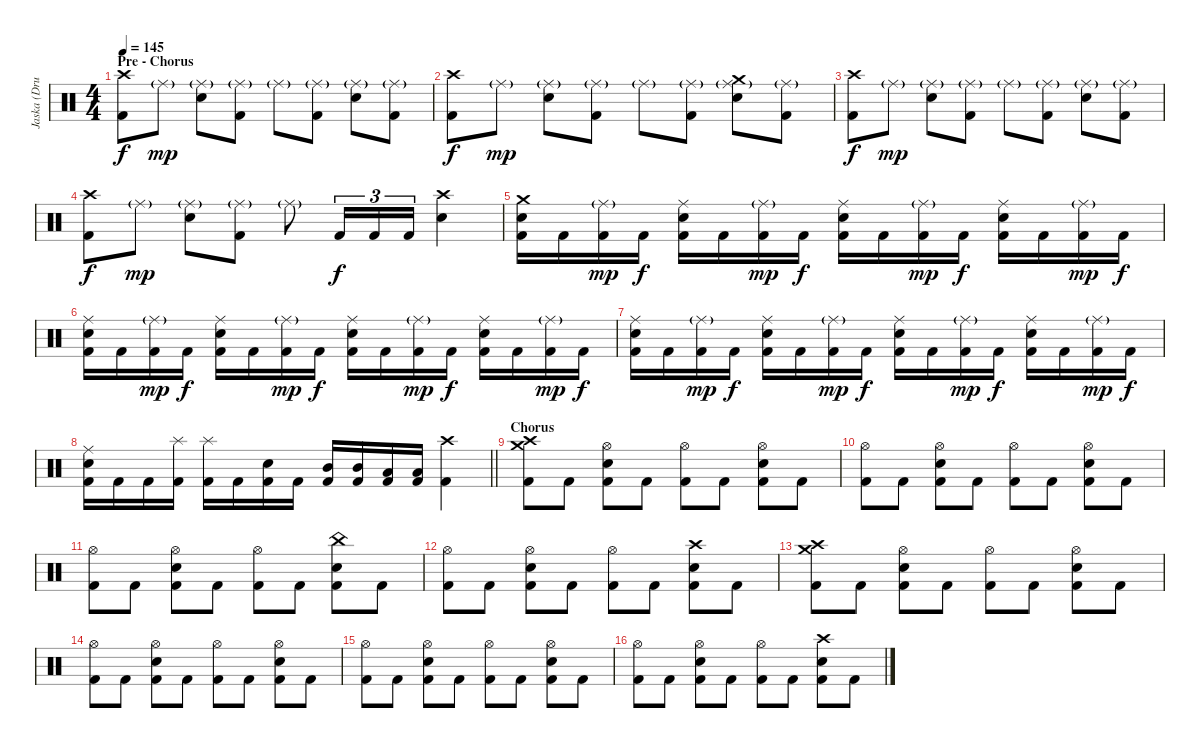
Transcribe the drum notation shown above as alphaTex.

\track ("Jaska (Drums)" "Jaska (Dru") {instrument percussion}
\staff {score}
\articulation defaults
\ts (4 4)
\section ("" "Pre - Chorus")
\tempo 145
\clef neutral
\ks c
("Crash high (hit)" "Kick (hit) 2").8{dy f} "Ride (middle)"{g}.8{dy mp} ("Ride (middle)"{g} "Electric Snare (hit)").8 ("Ride (middle)"{g} "Kick (hit) 2").8 "Ride (middle)"{g}.8 ("Ride (middle)"{g} "Kick (hit) 2").8 ("Ride (middle)"{g} "Electric Snare (hit)").8 ("Ride (middle)"{g} "Kick (hit) 2").8 |
("Crash high (hit)" "Kick (hit) 2").8{dy f} "Ride (middle)"{g}.8{dy mp} ("Ride (middle)"{g} "Electric Snare (hit)").8 ("Ride (middle)"{g} "Kick (hit) 2").8 "Ride (middle)"{g}.8 ("Ride (middle)"{g} "Kick (hit) 2").8 ("Crash medium (hit)" "Ride (middle)"{g} "Electric Snare (hit)").8 ("Ride (middle)"{g} "Kick (hit) 2").8 |
("Crash high (hit)" "Kick (hit) 2").8{dy f} "Ride (middle)"{g}.8{dy mp} ("Ride (middle)"{g} "Electric Snare (hit)").8 ("Ride (middle)"{g} "Kick (hit) 2").8 "Ride (middle)"{g}.8 ("Ride (middle)"{g} "Kick (hit) 2").8 ("Ride (middle)"{g} "Electric Snare (hit)").8 ("Ride (middle)"{g} "Kick (hit) 2").8 |
("Crash high (hit)" "Kick (hit) 2").8{dy f} "Ride (middle)"{g}.8{dy mp} ("Ride (middle)"{g} "Electric Snare (hit)").8 ("Ride (middle)"{g} "Kick (hit) 2").8 "Ride (middle)"{g}.8 "Kick (hit) 2".16{tu (3 2) dy f} "Kick (hit) 2".16{tu (3 2)} "Kick (hit) 2".16{tu (3 2)} ("Crash high (hit)" "Electric Snare (hit)").4 |
("Crash medium (hit)" "Electric Snare (hit)" "Kick (hit) 2").16 "Kick (hit) 2".16 ("Ride (middle)"{g} "Kick (hit) 2").16{dy mp} "Kick (hit) 2".16{dy f} ("Ride (middle)" "Electric Snare (hit)" "Kick (hit) 2").16 "Kick (hit) 2".16 ("Ride (middle)"{g} "Kick (hit) 2").16{dy mp} "Kick (hit) 2".16{dy f} ("Ride (middle)" "Electric Snare (hit)" "Kick (hit) 2").16 "Kick (hit) 2".16 ("Ride (middle)"{g} "Kick (hit) 2").16{dy mp} "Kick (hit) 2".16{dy f} ("Ride (middle)" "Electric Snare (hit)" "Kick (hit) 2").16 "Kick (hit) 2".16 ("Ride (middle)"{g} "Kick (hit) 2").16{dy mp} "Kick (hit) 2".16{dy f} |
("Ride (middle)" "Electric Snare (hit)" "Kick (hit) 2").16 "Kick (hit) 2".16 ("Ride (middle)"{g} "Kick (hit) 2").16{dy mp} "Kick (hit) 2".16{dy f} ("Ride (middle)" "Electric Snare (hit)" "Kick (hit) 2").16 "Kick (hit) 2".16 ("Ride (middle)"{g} "Kick (hit) 2").16{dy mp} "Kick (hit) 2".16{dy f} ("Ride (middle)" "Electric Snare (hit)" "Kick (hit) 2").16 "Kick (hit) 2".16 ("Ride (middle)"{g} "Kick (hit) 2").16{dy mp} "Kick (hit) 2".16{dy f} ("Ride (middle)" "Electric Snare (hit)" "Kick (hit) 2").16 "Kick (hit) 2".16 ("Ride (middle)"{g} "Kick (hit) 2").16{dy mp} "Kick (hit) 2".16{dy f} |
("Ride (middle)" "Electric Snare (hit)" "Kick (hit) 2").16 "Kick (hit) 2".16 ("Ride (middle)"{g} "Kick (hit) 2").16{dy mp} "Kick (hit) 2".16{dy f} ("Ride (middle)" "Electric Snare (hit)" "Kick (hit) 2").16 "Kick (hit) 2".16 ("Ride (middle)"{g} "Kick (hit) 2").16{dy mp} "Kick (hit) 2".16{dy f} ("Ride (middle)" "Electric Snare (hit)" "Kick (hit) 2").16 "Kick (hit) 2".16 ("Ride (middle)"{g} "Kick (hit) 2").16{dy mp} "Kick (hit) 2".16{dy f} ("Ride (middle)" "Electric Snare (hit)" "Kick (hit) 2").16 "Kick (hit) 2".16 ("Ride (middle)"{g} "Kick (hit) 2").16{dy mp} "Kick (hit) 2".16{dy f} |
\barLineRight lightlight
("Ride (middle)" "Electric Snare (hit)" "Kick (hit) 2").16 "Kick (hit) 2".16 "Kick (hit) 2".16 ("Splash (hit)" "Kick (hit) 2").16 ("Splash (hit)" "Kick (hit) 2").16 "Kick (hit) 2".16 ("Electric Snare (hit)" "Kick (hit) 2").16 "Kick (hit) 2".16 ("Mid Tom (hit)" "Kick (hit) 2").16 ("Mid Tom (hit)" "Kick (hit) 2").16 ("Low Tom (hit)" "Kick (hit) 2").16 ("Low Tom (hit)" "Kick (hit) 2").16 ("Crash high (hit)" "Kick (hit) 2").4 |
\section ("" "Chorus")
("Crash medium (hit)" "Crash high (hit)" "Kick (hit) 2").8{volume 16 balance 8} "Kick (hit) 2".8 ("Hi-Hat (open)" "Electric Snare (hit)" "Kick (hit) 2").8 "Kick (hit) 2".8 ("Hi-Hat (open)" "Kick (hit) 2").8 "Kick (hit) 2".8 ("Hi-Hat (open)" "Electric Snare (hit)" "Kick (hit) 2").8 "Kick (hit) 2".8 |
("Hi-Hat (open)" "Kick (hit) 2").8 "Kick (hit) 2".8 ("Hi-Hat (open)" "Electric Snare (hit)" "Kick (hit) 2").8 "Kick (hit) 2".8 ("Hi-Hat (open)" "Kick (hit) 2").8 "Kick (hit) 2".8 ("Hi-Hat (open)" "Electric Snare (hit)" "Kick (hit) 2").8 "Kick (hit) 2".8 |
("Hi-Hat (open)" "Kick (hit) 2").8 "Kick (hit) 2".8 ("Hi-Hat (open)" "Electric Snare (hit)" "Kick (hit) 2").8 "Kick (hit) 2".8 ("Hi-Hat (open)" "Kick (hit) 2").8 "Kick (hit) 2".8 ("China (hit)" "Electric Snare (hit)" "Kick (hit) 2").8 "Kick (hit) 2".8 |
("Hi-Hat (open)" "Kick (hit) 2").8 "Kick (hit) 2".8 ("Hi-Hat (open)" "Electric Snare (hit)" "Kick (hit) 2").8 "Kick (hit) 2".8 ("Hi-Hat (open)" "Kick (hit) 2").8 "Kick (hit) 2".8 ("Crash high (hit)" "Electric Snare (hit)" "Kick (hit) 2").8 "Kick (hit) 2".8 |
("Crash medium (hit)" "Crash high (hit)" "Kick (hit) 2").8 "Kick (hit) 2".8 ("Hi-Hat (open)" "Electric Snare (hit)" "Kick (hit) 2").8 "Kick (hit) 2".8 ("Hi-Hat (open)" "Kick (hit) 2").8 "Kick (hit) 2".8 ("Hi-Hat (open)" "Electric Snare (hit)" "Kick (hit) 2").8 "Kick (hit) 2".8 |
("Hi-Hat (open)" "Kick (hit) 2").8 "Kick (hit) 2".8 ("Hi-Hat (open)" "Electric Snare (hit)" "Kick (hit) 2").8 "Kick (hit) 2".8 ("Hi-Hat (open)" "Kick (hit) 2").8 "Kick (hit) 2".8 ("Hi-Hat (open)" "Electric Snare (hit)" "Kick (hit) 2").8 "Kick (hit) 2".8 |
("Hi-Hat (open)" "Kick (hit) 2").8 "Kick (hit) 2".8 ("Hi-Hat (open)" "Electric Snare (hit)" "Kick (hit) 2").8 "Kick (hit) 2".8 ("Hi-Hat (open)" "Kick (hit) 2").8 "Kick (hit) 2".8 ("Hi-Hat (open)" "Electric Snare (hit)" "Kick (hit) 2").8 "Kick (hit) 2".8 |
("Hi-Hat (open)" "Kick (hit) 2").8 "Kick (hit) 2".8 ("Hi-Hat (open)" "Electric Snare (hit)" "Kick (hit) 2").8 "Kick (hit) 2".8 ("Hi-Hat (open)" "Kick (hit) 2").8 "Kick (hit) 2".8 ("Crash high (hit)" "Electric Snare (hit)" "Kick (hit) 2").8 "Kick (hit) 2".8
